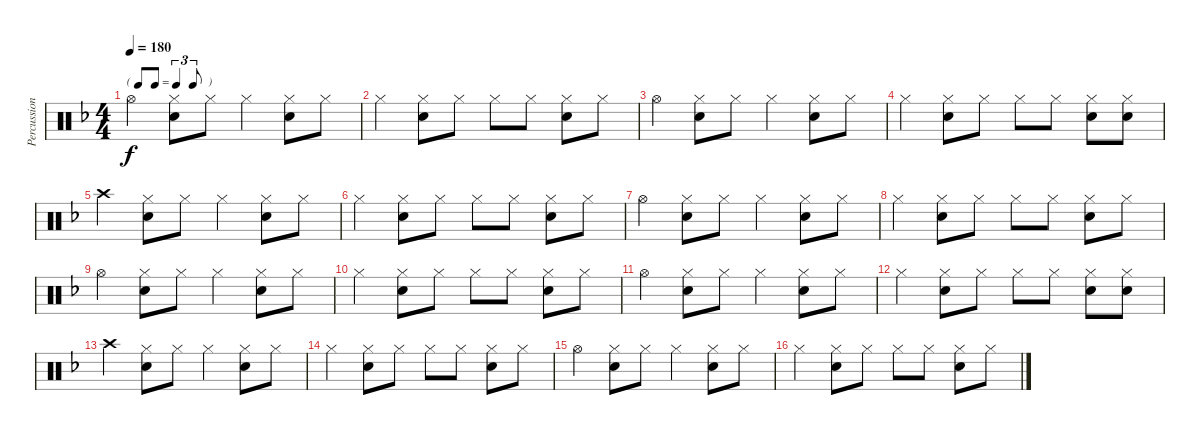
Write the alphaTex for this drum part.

\track ("Percussion" "Percussion") {instrument percussion}
\staff {score}
\articulation defaults
\ts (4 4)
\tf triplet8th
\tempo 180
\clef neutral
\ks f "Hi-Hat (open)".4{dy f}
("Hi-Hat (closed)" "Snare (hit) 2").8 "Hi-Hat (closed)".8 "Hi-Hat (closed)".4 ("Hi-Hat (closed)" "Snare (hit) 2").8 "Hi-Hat (closed)".8 |
"Hi-Hat (closed)".4 ("Hi-Hat (closed)" "Snare (hit) 2").8 "Hi-Hat (closed)".8 "Hi-Hat (closed)".8 "Hi-Hat (closed)".8 ("Hi-Hat (closed)" "Snare (hit) 2").8 "Hi-Hat (closed)".8 |
"Hi-Hat (open)".4 ("Hi-Hat (closed)" "Snare (hit) 2").8 "Hi-Hat (closed)".8 "Hi-Hat (closed)".4 ("Hi-Hat (closed)" "Snare (hit) 2").8 "Hi-Hat (closed)".8 |
"Hi-Hat (closed)".4 ("Hi-Hat (closed)" "Snare (hit) 2").8 "Hi-Hat (closed)".8 "Hi-Hat (closed)".8 "Hi-Hat (closed)".8 ("Hi-Hat (closed)" "Snare (hit) 2").8 ("Hi-Hat (closed)" "Snare (hit) 2").8 |
"Crash high (hit)".4 ("Hi-Hat (closed)" "Snare (hit) 2").8 "Hi-Hat (closed)".8 "Hi-Hat (closed)".4 ("Hi-Hat (closed)" "Snare (hit) 2").8 "Hi-Hat (closed)".8 |
"Hi-Hat (closed)".4 ("Hi-Hat (closed)" "Snare (hit) 2").8 "Hi-Hat (closed)".8 "Hi-Hat (closed)".8 "Hi-Hat (closed)".8 ("Hi-Hat (closed)" "Snare (hit) 2").8 "Hi-Hat (closed)".8 |
"Hi-Hat (open)".4 ("Hi-Hat (closed)" "Snare (hit) 2").8 "Hi-Hat (closed)".8 "Hi-Hat (closed)".4 ("Hi-Hat (closed)" "Snare (hit) 2").8 "Hi-Hat (closed)".8 |
"Hi-Hat (closed)".4 ("Hi-Hat (closed)" "Snare (hit) 2").8 "Hi-Hat (closed)".8 "Hi-Hat (closed)".8 "Hi-Hat (closed)".8 ("Hi-Hat (closed)" "Snare (hit) 2").8 "Hi-Hat (closed)".8 |
"Hi-Hat (open)".4 ("Hi-Hat (closed)" "Snare (hit) 2").8 "Hi-Hat (closed)".8 "Hi-Hat (closed)".4 ("Hi-Hat (closed)" "Snare (hit) 2").8 "Hi-Hat (closed)".8 |
"Hi-Hat (closed)".4 ("Hi-Hat (closed)" "Snare (hit) 2").8 "Hi-Hat (closed)".8 "Hi-Hat (closed)".8 "Hi-Hat (closed)".8 ("Hi-Hat (closed)" "Snare (hit) 2").8 "Hi-Hat (closed)".8 |
"Hi-Hat (open)".4 ("Hi-Hat (closed)" "Snare (hit) 2").8 "Hi-Hat (closed)".8 "Hi-Hat (closed)".4 ("Hi-Hat (closed)" "Snare (hit) 2").8 "Hi-Hat (closed)".8 |
"Hi-Hat (closed)".4 ("Hi-Hat (closed)" "Snare (hit) 2").8 "Hi-Hat (closed)".8 "Hi-Hat (closed)".8 "Hi-Hat (closed)".8 ("Hi-Hat (closed)" "Snare (hit) 2").8 ("Hi-Hat (closed)" "Snare (hit) 2").8 |
"Crash high (hit)".4 ("Hi-Hat (closed)" "Snare (hit) 2").8 "Hi-Hat (closed)".8 "Hi-Hat (closed)".4 ("Hi-Hat (closed)" "Snare (hit) 2").8 "Hi-Hat (closed)".8 |
"Hi-Hat (closed)".4 ("Hi-Hat (closed)" "Snare (hit) 2").8 "Hi-Hat (closed)".8 "Hi-Hat (closed)".8 "Hi-Hat (closed)".8 ("Hi-Hat (closed)" "Snare (hit) 2").8 "Hi-Hat (closed)".8 |
"Hi-Hat (open)".4 ("Hi-Hat (closed)" "Snare (hit) 2").8 "Hi-Hat (closed)".8 "Hi-Hat (closed)".4 ("Hi-Hat (closed)" "Snare (hit) 2").8 "Hi-Hat (closed)".8 |
"Hi-Hat (closed)".4 ("Hi-Hat (closed)" "Snare (hit) 2").8 "Hi-Hat (closed)".8 "Hi-Hat (closed)".8 "Hi-Hat (closed)".8 ("Hi-Hat (closed)" "Snare (hit) 2").8 "Hi-Hat (closed)".8
